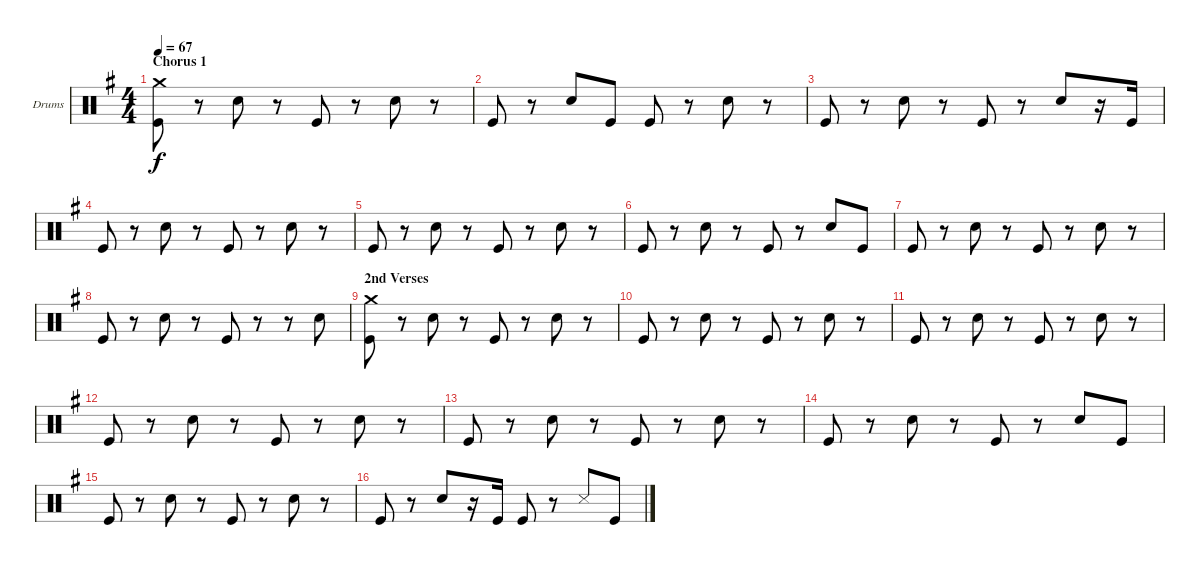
\bracketExtendMode groupsimilarinstruments
\firstSystemTrackNameOrientation horizontal
\otherSystemsTrackNameOrientation horizontal
\track ("Drumkit" "Drums") {instrument percussion}
\staff {score}
\articulation defaults
\ts (4 4)
\section ("" "Chorus 1")
\tempo 67
\clef neutral
\scale
0.333333
\ks g
("Kick (hit)" "Crash medium (hit)").8{dy f} r.8 "Snare (hit) 2".8 r.8 "Kick (hit)".8 r.8 "Snare (hit) 2".8 r.8 |
\scale
0.333333 "Kick (hit)".8 r.8 "Snare (hit) 2".8 "Kick (hit)".8 "Kick (hit)".8 r.8 "Snare (hit) 2".8 r.8 |
\scale
0.333333 "Kick (hit)".8 r.8 "Snare (hit) 2".8 r.8 "Kick (hit)".8 r.8 "Snare (hit) 2".8 r.16 "Kick (hit)".16 |
\scale
0.333333 "Kick (hit)".8 r.8 "Snare (hit) 2".8 r.8 "Kick (hit)".8 r.8 "Snare (hit) 2".8 r.8 |
\scale
0.333333 "Kick (hit)".8 r.8 "Snare (hit) 2".8 r.8 "Kick (hit)".8 r.8 "Snare (hit) 2".8 r.8 |
\scale
0.322034 "Kick (hit)".8 r.8 "Snare (hit) 2".8 r.8 "Kick (hit)".8 r.8 "Snare (hit) 2".8 "Kick (hit)".8 |
\scale
0.322034 "Kick (hit)".8 r.8 "Snare (hit) 2".8 r.8 "Kick (hit)".8 r.8 "Snare (hit) 2".8 r.8 |
\scale
0.355932 "Kick (hit)".8 r.8 "Snare (hit) 2".8 r.8 "Kick (hit)".8 r.8 r.8 "Snare (hit) 2".8 |
\section ("" "2nd Verses")
("Kick (hit)" "Crash medium (hit)").8 r.8 "Snare (hit) 2".8 r.8 "Kick (hit)".8 r.8 "Snare (hit) 2".8 r.8 |
"Kick (hit)".8 r.8 "Snare (hit) 2".8 r.8 "Kick (hit)".8 r.8 "Snare (hit) 2".8 r.8 |
"Kick (hit)".8 r.8 "Snare (hit) 2".8 r.8 "Kick (hit)".8 r.8 "Snare (hit) 2".8 r.8 |
"Kick (hit)".8 r.8 "Snare (hit) 2".8 r.8 "Kick (hit)".8 r.8 "Snare (hit) 2".8 r.8 |
"Kick (hit)".8 r.8 "Snare (hit) 2".8 r.8 "Kick (hit)".8 r.8 "Snare (hit) 2".8 r.8 |
"Kick (hit)".8 r.8 "Snare (hit) 2".8 r.8 "Kick (hit)".8 r.8 "Snare (hit) 2".8 "Kick (hit)".8 |
"Kick (hit)".8 r.8 "Snare (hit) 2".8 r.8 "Kick (hit)".8 r.8 "Snare (hit) 2".8 r.8 |
"Kick (hit)".8 r.8 "Snare (hit) 2".8 r.16 "Kick (hit)".16 "Kick (hit)".8 r.8 "Snare (side stick) 3".8 "Kick (hit)".8
